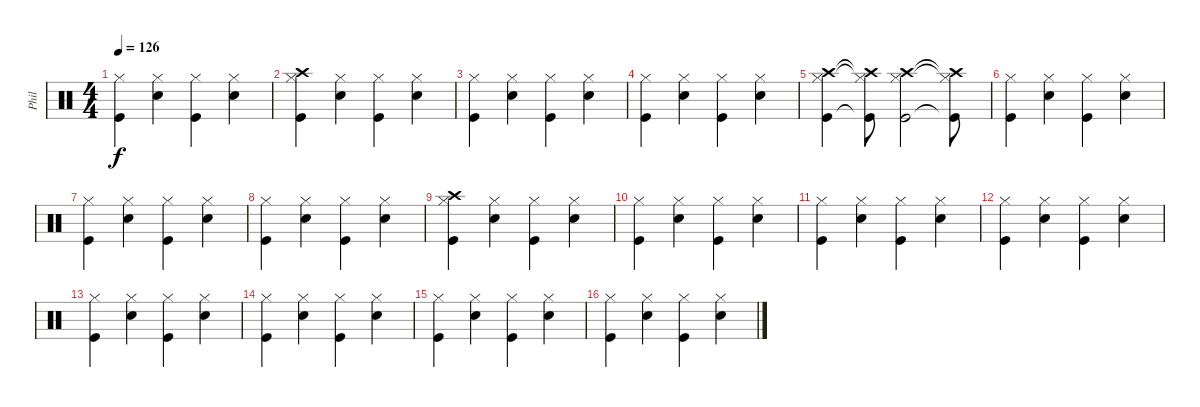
\track ("Phil" "Phil") {instrument percussion}
\staff {score}
\articulation defaults
\ts (4 4)
\tempo 126
\clef neutral
\ks c
("Hi-Hat (closed)" "Kick (hit)").4{dy f} ("Hi-Hat (closed)" "Snare (hit) 2").4 ("Hi-Hat (closed)" "Kick (hit)").4 ("Hi-Hat (closed)" "Snare (hit) 2").4 |
("Hi-Hat (closed)" "Crash high (hit)" "Kick (hit)").4 ("Hi-Hat (closed)" "Snare (hit) 2").4 ("Hi-Hat (closed)" "Kick (hit)").4 ("Hi-Hat (closed)" "Snare (hit) 2").4 |
("Hi-Hat (closed)" "Kick (hit)").4 ("Hi-Hat (closed)" "Snare (hit) 2").4 ("Hi-Hat (closed)" "Kick (hit)").4 ("Hi-Hat (closed)" "Snare (hit) 2").4 |
("Hi-Hat (closed)" "Kick (hit)").4 ("Hi-Hat (closed)" "Snare (hit) 2").4 ("Hi-Hat (closed)" "Kick (hit)").4 ("Hi-Hat (closed)" "Snare (hit) 2").4 |
("Hi-Hat (closed)" "Crash high (hit)" "Kick (hit)").4 ("Hi-Hat (closed)"{t} "Crash high (hit)"{t} "Kick (hit)"{t}).8 ("Hi-Hat (closed)" "Crash high (hit)" "Kick (hit)").2 ("Hi-Hat (closed)"{t} "Crash high (hit)"{t} "Kick (hit)"{t}).8 |
("Hi-Hat (closed)" "Kick (hit)").4 ("Hi-Hat (closed)" "Snare (hit) 2").4 ("Hi-Hat (closed)" "Kick (hit)").4 ("Hi-Hat (closed)" "Snare (hit) 2").4 |
("Hi-Hat (closed)" "Kick (hit)").4 ("Hi-Hat (closed)" "Snare (hit) 2").4 ("Hi-Hat (closed)" "Kick (hit)").4 ("Hi-Hat (closed)" "Snare (hit) 2").4 |
("Hi-Hat (closed)" "Kick (hit)").4 ("Hi-Hat (closed)" "Snare (hit) 2").4 ("Hi-Hat (closed)" "Kick (hit)").4 ("Hi-Hat (closed)" "Snare (hit) 2").4 |
("Hi-Hat (closed)" "Crash high (hit)" "Kick (hit)").4 ("Hi-Hat (closed)" "Snare (hit) 2").4 ("Hi-Hat (closed)" "Kick (hit)").4 ("Hi-Hat (closed)" "Snare (hit) 2").4 |
("Hi-Hat (closed)" "Kick (hit)").4 ("Hi-Hat (closed)" "Snare (hit) 2").4 ("Hi-Hat (closed)" "Kick (hit)").4 ("Hi-Hat (closed)" "Snare (hit) 2").4 |
("Hi-Hat (closed)" "Kick (hit)").4 ("Hi-Hat (closed)" "Snare (hit) 2").4 ("Hi-Hat (closed)" "Kick (hit)").4 ("Hi-Hat (closed)" "Snare (hit) 2").4 |
("Hi-Hat (closed)" "Kick (hit)").4 ("Hi-Hat (closed)" "Snare (hit) 2").4 ("Hi-Hat (closed)" "Kick (hit)").4 ("Hi-Hat (closed)" "Snare (hit) 2").4 |
("Hi-Hat (closed)" "Kick (hit)").4 ("Hi-Hat (closed)" "Snare (hit) 2").4 ("Hi-Hat (closed)" "Kick (hit)").4 ("Hi-Hat (closed)" "Snare (hit) 2").4 |
("Hi-Hat (closed)" "Kick (hit)").4 ("Hi-Hat (closed)" "Snare (hit) 2").4 ("Hi-Hat (closed)" "Kick (hit)").4 ("Hi-Hat (closed)" "Snare (hit) 2").4 |
("Hi-Hat (closed)" "Kick (hit)").4 ("Hi-Hat (closed)" "Snare (hit) 2").4 ("Hi-Hat (closed)" "Kick (hit)").4 ("Hi-Hat (closed)" "Snare (hit) 2").4 |
("Hi-Hat (closed)" "Kick (hit)").4 ("Hi-Hat (closed)" "Snare (hit) 2").4 ("Hi-Hat (closed)" "Kick (hit)").4 ("Hi-Hat (closed)" "Snare (hit) 2").4
